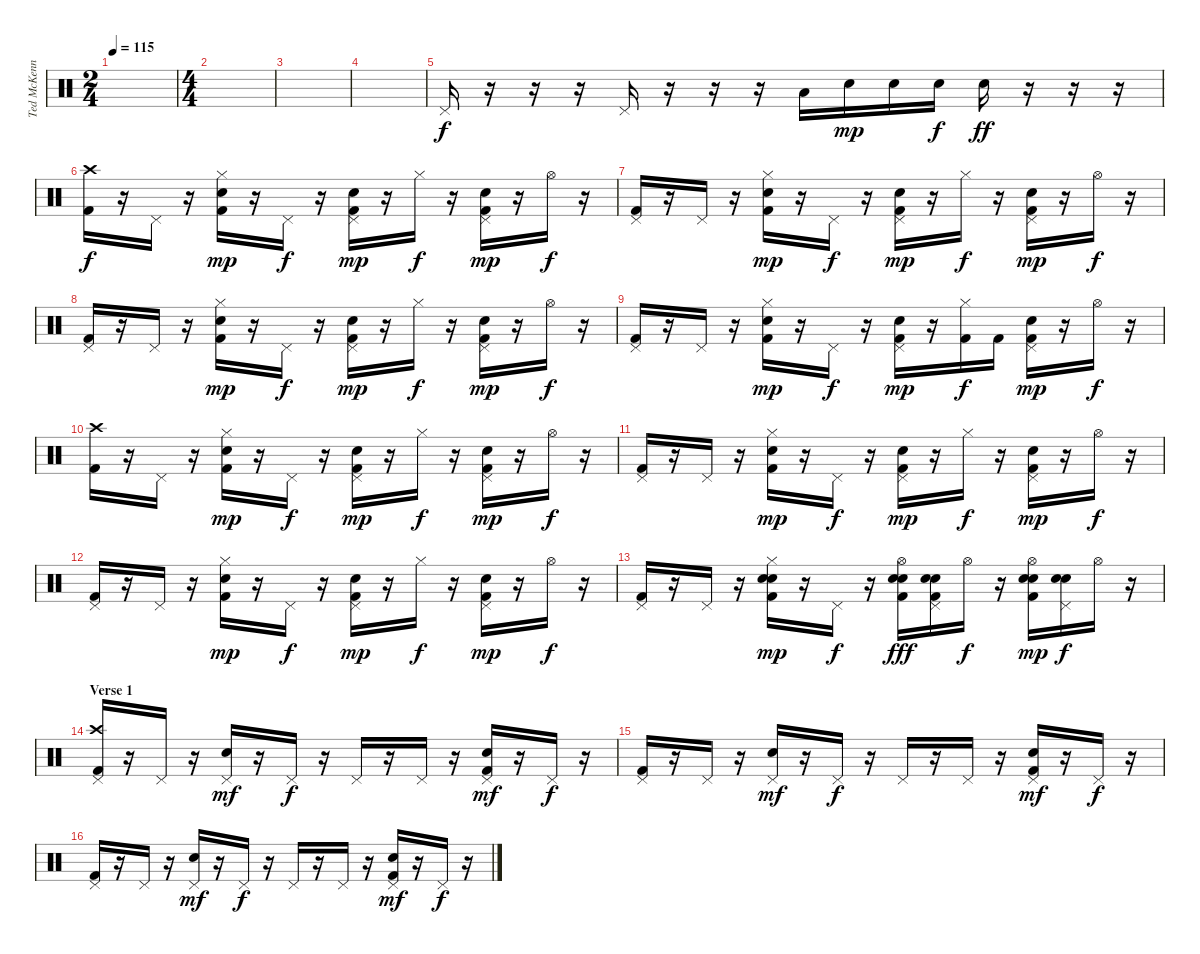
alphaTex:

\track ("Ted McKenna" "Ted McKenn") {instrument percussion}
\staff {score}
\articulation defaults
\ts (2 4)
\tempo 115
\clef neutral
\ks c
|
\ts (4 4)
|
|
|
"Pedal Hi-Hat (hit)".16 r.16 r.16 r.16 "Pedal Hi-Hat (hit)".16 r.16 r.16 r.16 "Low Tom (hit)".16 "Snare (hit) 2".16{dy mp} "Snare (hit) 2".16 "Snare (hit) 2".16{dy f} "Electric Snare (hit)".16{dy ff} r.16 r.16 r.16 |
("Crash high (hit)" "Kick (hit) 2").16{dy f} r.16 "Pedal Hi-Hat (hit)".16 r.16 ("Electric Snare (hit)" "Hi-Hat (closed)" "Kick (hit) 2").16{dy mp} r.16 "Pedal Hi-Hat (hit)".16{dy f} r.16 ("Electric Snare (hit)" "Pedal Hi-Hat (hit)" "Kick (hit) 2").16{dy mp} r.16 "Hi-Hat (closed)".16{dy f} r.16 ("Electric Snare (hit)" "Pedal Hi-Hat (hit)" "Kick (hit) 2").16{dy mp} r.16 "Hi-Hat (open)".16{dy f} r.16 |
("Pedal Hi-Hat (hit)" "Kick (hit) 2").16 r.16 "Pedal Hi-Hat (hit)".16 r.16 ("Electric Snare (hit)" "Hi-Hat (closed)" "Kick (hit) 2").16{dy mp} r.16 "Pedal Hi-Hat (hit)".16{dy f} r.16 ("Electric Snare (hit)" "Pedal Hi-Hat (hit)" "Kick (hit) 2").16{dy mp} r.16 "Hi-Hat (closed)".16{dy f} r.16 ("Electric Snare (hit)" "Pedal Hi-Hat (hit)" "Kick (hit) 2").16{dy mp} r.16 "Hi-Hat (open)".16{dy f} r.16 |
("Pedal Hi-Hat (hit)" "Kick (hit) 2").16 r.16 "Pedal Hi-Hat (hit)".16 r.16 ("Electric Snare (hit)" "Hi-Hat (closed)" "Kick (hit) 2").16{dy mp} r.16 "Pedal Hi-Hat (hit)".16{dy f} r.16 ("Electric Snare (hit)" "Pedal Hi-Hat (hit)" "Kick (hit) 2").16{dy mp} r.16 "Hi-Hat (closed)".16{dy f} r.16 ("Electric Snare (hit)" "Pedal Hi-Hat (hit)" "Kick (hit) 2").16{dy mp} r.16 "Hi-Hat (open)".16{dy f} r.16 |
("Pedal Hi-Hat (hit)" "Kick (hit) 2").16 r.16 "Pedal Hi-Hat (hit)".16 r.16 ("Electric Snare (hit)" "Hi-Hat (closed)" "Kick (hit) 2").16{dy mp} r.16 "Pedal Hi-Hat (hit)".16{dy f} r.16 ("Electric Snare (hit)" "Pedal Hi-Hat (hit)" "Kick (hit) 2").16{dy mp} r.16 ("Hi-Hat (closed)" "Kick (hit) 2").16{dy f} "Kick (hit) 2".16 ("Electric Snare (hit)" "Pedal Hi-Hat (hit)" "Kick (hit) 2").16{dy mp} r.16 "Hi-Hat (open)".16{dy f} r.16 |
("Crash high (hit)" "Kick (hit) 2").16 r.16 "Pedal Hi-Hat (hit)".16 r.16 ("Electric Snare (hit)" "Hi-Hat (closed)" "Kick (hit) 2").16{dy mp} r.16 "Pedal Hi-Hat (hit)".16{dy f} r.16 ("Electric Snare (hit)" "Pedal Hi-Hat (hit)" "Kick (hit) 2").16{dy mp} r.16 "Hi-Hat (closed)".16{dy f} r.16 ("Electric Snare (hit)" "Pedal Hi-Hat (hit)" "Kick (hit) 2").16{dy mp} r.16 "Hi-Hat (open)".16{dy f} r.16 |
("Pedal Hi-Hat (hit)" "Kick (hit) 2").16 r.16 "Pedal Hi-Hat (hit)".16 r.16 ("Electric Snare (hit)" "Hi-Hat (closed)" "Kick (hit) 2").16{dy mp} r.16 "Pedal Hi-Hat (hit)".16{dy f} r.16 ("Electric Snare (hit)" "Pedal Hi-Hat (hit)" "Kick (hit) 2").16{dy mp} r.16 "Hi-Hat (closed)".16{dy f} r.16 ("Electric Snare (hit)" "Pedal Hi-Hat (hit)" "Kick (hit) 2").16{dy mp} r.16 "Hi-Hat (open)".16{dy f} r.16 |
("Pedal Hi-Hat (hit)" "Kick (hit) 2").16 r.16 "Pedal Hi-Hat (hit)".16 r.16 ("Electric Snare (hit)" "Hi-Hat (closed)" "Kick (hit) 2").16{dy mp} r.16 "Pedal Hi-Hat (hit)".16{dy f} r.16 ("Electric Snare (hit)" "Pedal Hi-Hat (hit)" "Kick (hit) 2").16{dy mp} r.16 "Hi-Hat (closed)".16{dy f} r.16 ("Electric Snare (hit)" "Pedal Hi-Hat (hit)" "Kick (hit) 2").16{dy mp} r.16 "Hi-Hat (open)".16{dy f} r.16 |
("Pedal Hi-Hat (hit)" "Kick (hit) 2").16 r.16 "Pedal Hi-Hat (hit)".16 r.16 ("Electric Snare (hit)" "Electric Snare (hit)" "Hi-Hat (closed)" "Kick (hit) 2").16{dy mp} r.16 "Pedal Hi-Hat (hit)".16{dy f} r.16 ("Electric Snare (hit)" "Electric Snare (hit)" "Hi-Hat (open)" "Kick (hit) 2").16{dy fff} ("Electric Snare (hit)" "Electric Snare (hit)" "Pedal Hi-Hat (hit)" "Kick (hit) 2").16 "Hi-Hat (open)".16{dy f} r.16 ("Electric Snare (hit)" "Electric Snare (hit)" "Hi-Hat (open)" "Kick (hit) 2").16{dy mp} ("Electric Snare (hit)" "Electric Snare (hit)" "Pedal Hi-Hat (hit)").16{dy f} "Hi-Hat (open)".16 r.16 |
\section ("" "Verse 1")
("Crash high (hit)" "Pedal Hi-Hat (hit)" "Kick (hit) 2").16 r.16 "Pedal Hi-Hat (hit)".16 r.16 ("Electric Snare (hit)" "Pedal Hi-Hat (hit)").16{dy mf} r.16 "Pedal Hi-Hat (hit)".16{dy f} r.16 "Pedal Hi-Hat (hit)".16 r.16 "Pedal Hi-Hat (hit)".16 r.16 ("Electric Snare (hit)" "Pedal Hi-Hat (hit)" "Kick (hit) 2").16{dy mf} r.16 "Pedal Hi-Hat (hit)".16{dy f} r.16 |
("Pedal Hi-Hat (hit)" "Kick (hit) 2").16 r.16 "Pedal Hi-Hat (hit)".16 r.16 ("Electric Snare (hit)" "Pedal Hi-Hat (hit)").16{dy mf} r.16 "Pedal Hi-Hat (hit)".16{dy f} r.16 "Pedal Hi-Hat (hit)".16 r.16 "Pedal Hi-Hat (hit)".16 r.16 ("Electric Snare (hit)" "Pedal Hi-Hat (hit)" "Kick (hit) 2").16{dy mf} r.16 "Pedal Hi-Hat (hit)".16{dy f} r.16 |
("Pedal Hi-Hat (hit)" "Kick (hit) 2").16 r.16 "Pedal Hi-Hat (hit)".16 r.16 ("Electric Snare (hit)" "Pedal Hi-Hat (hit)").16{dy mf} r.16 "Pedal Hi-Hat (hit)".16{dy f} r.16 "Pedal Hi-Hat (hit)".16 r.16 "Pedal Hi-Hat (hit)".16 r.16 ("Electric Snare (hit)" "Pedal Hi-Hat (hit)" "Kick (hit) 2").16{dy mf} r.16 "Pedal Hi-Hat (hit)".16{dy f} r.16
